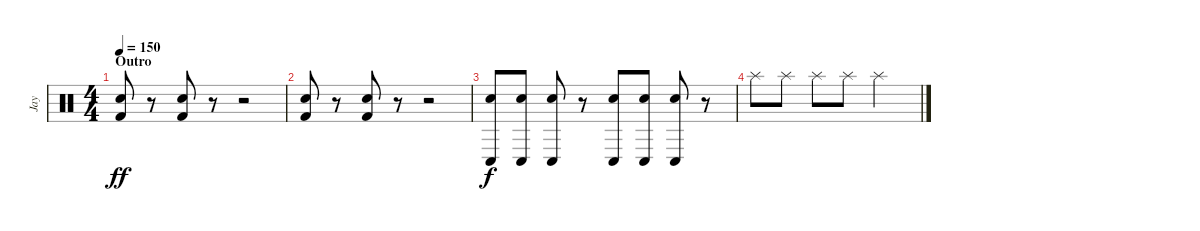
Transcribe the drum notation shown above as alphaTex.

\track ("Jay" "Jay") {instrument percussion}
\staff {score}
\articulation defaults
\ts (4 4)
\section ("" "Outro")
\tempo 150
\clef neutral
\ks c
("Kick (hit) 2" "Electric Snare (hit)").8{dy ff} r.8 ("Kick (hit) 2" "Electric Snare (hit)").8 r.8 r.2 |
("Kick (hit) 2" "Electric Snare (hit)").8 r.8 ("Kick (hit) 2" "Electric Snare (hit)").8 r.8 r.2 |
("Conga low (hit)" "Electric Snare (hit)").8{dy f} ("Conga low (hit)" "Electric Snare (hit)").8 ("Conga low (hit)" "Electric Snare (hit)").8 r.8 ("Conga low (hit)" "Electric Snare (hit)").8 ("Conga low (hit)" "Electric Snare (hit)").8 ("Conga low (hit)" "Electric Snare (hit)").8 r.8 |
"Splash (hit)".8 "Splash (hit)".8 "Splash (hit)".8 "Splash (hit)".8 "Splash (hit)".2
